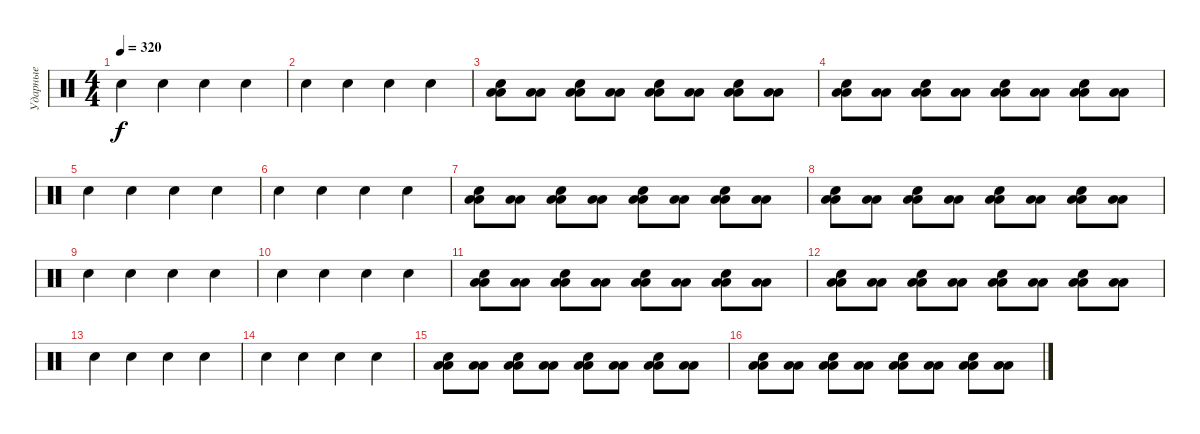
\track ("Ударные" "Ударные") {instrument percussion}
\staff {score}
\articulation defaults
\ts (4 4)
\tempo 320
\clef neutral
\ks c "Electric Snare (hit)".4{dy f} "Electric Snare (hit)".4 "Electric Snare (hit)".4 "Electric Snare (hit)".4
|
"Electric Snare (hit)".4 "Electric Snare (hit)".4 "Electric Snare (hit)".4 "Electric Snare (hit)".4 |
("Low Floor Tom (hit)" "Low Floor Tom (hit)" "Electric Snare (hit)").8 ("Low Floor Tom (hit)" "Low Floor Tom (hit)").8 ("Low Floor Tom (hit)" "Low Floor Tom (hit)" "Electric Snare (hit)").8 ("Low Floor Tom (hit)" "Low Floor Tom (hit)").8 ("Low Floor Tom (hit)" "Low Floor Tom (hit)" "Electric Snare (hit)").8 ("Low Floor Tom (hit)" "Low Floor Tom (hit)").8 ("Low Floor Tom (hit)" "Low Floor Tom (hit)" "Electric Snare (hit)").8 ("Low Floor Tom (hit)" "Low Floor Tom (hit)").8 |
("Low Floor Tom (hit)" "Low Floor Tom (hit)" "Electric Snare (hit)").8 ("Low Floor Tom (hit)" "Low Floor Tom (hit)").8 ("Low Floor Tom (hit)" "Low Floor Tom (hit)" "Electric Snare (hit)").8 ("Low Floor Tom (hit)" "Low Floor Tom (hit)").8 ("Low Floor Tom (hit)" "Low Floor Tom (hit)" "Electric Snare (hit)").8 ("Low Floor Tom (hit)" "Low Floor Tom (hit)").8 ("Low Floor Tom (hit)" "Low Floor Tom (hit)" "Electric Snare (hit)").8 ("Low Floor Tom (hit)" "Low Floor Tom (hit)").8 |
"Electric Snare (hit)".4 "Electric Snare (hit)".4 "Electric Snare (hit)".4 "Electric Snare (hit)".4 |
"Electric Snare (hit)".4 "Electric Snare (hit)".4 "Electric Snare (hit)".4 "Electric Snare (hit)".4 |
("Low Floor Tom (hit)" "Low Floor Tom (hit)" "Electric Snare (hit)").8 ("Low Floor Tom (hit)" "Low Floor Tom (hit)").8 ("Low Floor Tom (hit)" "Low Floor Tom (hit)" "Electric Snare (hit)").8 ("Low Floor Tom (hit)" "Low Floor Tom (hit)").8 ("Low Floor Tom (hit)" "Low Floor Tom (hit)" "Electric Snare (hit)").8 ("Low Floor Tom (hit)" "Low Floor Tom (hit)").8 ("Low Floor Tom (hit)" "Low Floor Tom (hit)" "Electric Snare (hit)").8 ("Low Floor Tom (hit)" "Low Floor Tom (hit)").8 |
("Low Floor Tom (hit)" "Low Floor Tom (hit)" "Electric Snare (hit)").8 ("Low Floor Tom (hit)" "Low Floor Tom (hit)").8 ("Low Floor Tom (hit)" "Low Floor Tom (hit)" "Electric Snare (hit)").8 ("Low Floor Tom (hit)" "Low Floor Tom (hit)").8 ("Low Floor Tom (hit)" "Low Floor Tom (hit)" "Electric Snare (hit)").8 ("Low Floor Tom (hit)" "Low Floor Tom (hit)").8 ("Low Floor Tom (hit)" "Low Floor Tom (hit)" "Electric Snare (hit)").8 ("Low Floor Tom (hit)" "Low Floor Tom (hit)").8 |
"Electric Snare (hit)".4 "Electric Snare (hit)".4 "Electric Snare (hit)".4 "Electric Snare (hit)".4 |
"Electric Snare (hit)".4 "Electric Snare (hit)".4 "Electric Snare (hit)".4 "Electric Snare (hit)".4 |
("Low Floor Tom (hit)" "Low Floor Tom (hit)" "Electric Snare (hit)").8 ("Low Floor Tom (hit)" "Low Floor Tom (hit)").8 ("Low Floor Tom (hit)" "Low Floor Tom (hit)" "Electric Snare (hit)").8 ("Low Floor Tom (hit)" "Low Floor Tom (hit)").8 ("Low Floor Tom (hit)" "Low Floor Tom (hit)" "Electric Snare (hit)").8 ("Low Floor Tom (hit)" "Low Floor Tom (hit)").8 ("Low Floor Tom (hit)" "Low Floor Tom (hit)" "Electric Snare (hit)").8 ("Low Floor Tom (hit)" "Low Floor Tom (hit)").8 |
("Low Floor Tom (hit)" "Low Floor Tom (hit)" "Electric Snare (hit)").8 ("Low Floor Tom (hit)" "Low Floor Tom (hit)").8 ("Low Floor Tom (hit)" "Low Floor Tom (hit)" "Electric Snare (hit)").8 ("Low Floor Tom (hit)" "Low Floor Tom (hit)").8 ("Low Floor Tom (hit)" "Low Floor Tom (hit)" "Electric Snare (hit)").8 ("Low Floor Tom (hit)" "Low Floor Tom (hit)").8 ("Low Floor Tom (hit)" "Low Floor Tom (hit)" "Electric Snare (hit)").8 ("Low Floor Tom (hit)" "Low Floor Tom (hit)").8 |
"Electric Snare (hit)".4 "Electric Snare (hit)".4 "Electric Snare (hit)".4 "Electric Snare (hit)".4 |
"Electric Snare (hit)".4 "Electric Snare (hit)".4 "Electric Snare (hit)".4 "Electric Snare (hit)".4 |
("Low Floor Tom (hit)" "Low Floor Tom (hit)" "Electric Snare (hit)").8 ("Low Floor Tom (hit)" "Low Floor Tom (hit)").8 ("Low Floor Tom (hit)" "Low Floor Tom (hit)" "Electric Snare (hit)").8 ("Low Floor Tom (hit)" "Low Floor Tom (hit)").8 ("Low Floor Tom (hit)" "Low Floor Tom (hit)" "Electric Snare (hit)").8 ("Low Floor Tom (hit)" "Low Floor Tom (hit)").8 ("Low Floor Tom (hit)" "Low Floor Tom (hit)" "Electric Snare (hit)").8 ("Low Floor Tom (hit)" "Low Floor Tom (hit)").8 |
("Low Floor Tom (hit)" "Low Floor Tom (hit)" "Electric Snare (hit)").8 ("Low Floor Tom (hit)" "Low Floor Tom (hit)").8 ("Low Floor Tom (hit)" "Low Floor Tom (hit)" "Electric Snare (hit)").8 ("Low Floor Tom (hit)" "Low Floor Tom (hit)").8 ("Low Floor Tom (hit)" "Low Floor Tom (hit)" "Electric Snare (hit)").8 ("Low Floor Tom (hit)" "Low Floor Tom (hit)").8 ("Low Floor Tom (hit)" "Low Floor Tom (hit)" "Electric Snare (hit)").8 ("Low Floor Tom (hit)" "Low Floor Tom (hit)").8
